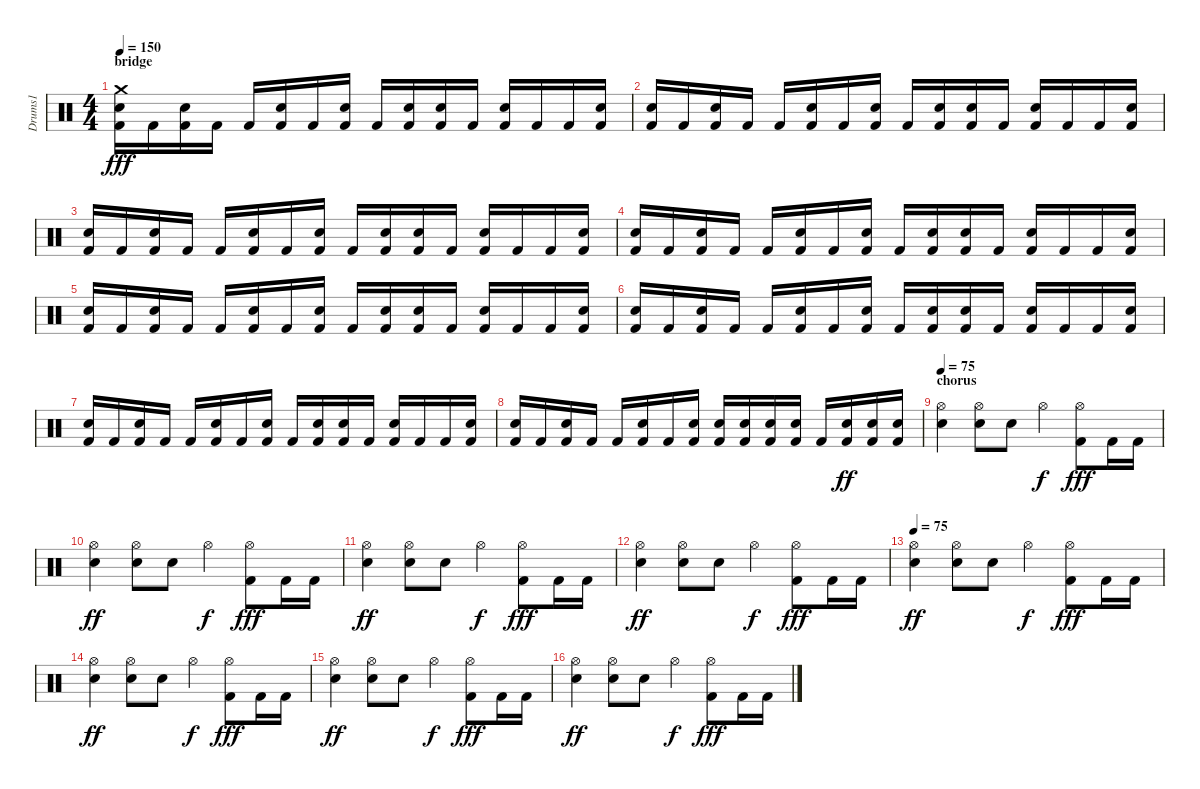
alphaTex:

\track ("Drums1" "Drums1") {instrument percussion}
\staff {score}
\articulation defaults
\ts (4 4)
\section ("" "bridge")
\tempo 150
\clef neutral
\ks c
("Kick (hit) 2" "Electric Snare (hit)" "Crash medium (hit)").16{dy fff} "Kick (hit) 2".16 ("Kick (hit) 2" "Electric Snare (hit)").16 "Kick (hit) 2".16 "Kick (hit) 2".16 ("Kick (hit) 2" "Electric Snare (hit)").16 "Kick (hit) 2".16 ("Kick (hit) 2" "Electric Snare (hit)").16 "Kick (hit) 2".16 ("Kick (hit) 2" "Electric Snare (hit)").16 ("Kick (hit) 2" "Electric Snare (hit)").16 "Kick (hit) 2".16 ("Kick (hit) 2" "Electric Snare (hit)").16 "Kick (hit) 2".16 "Kick (hit) 2".16 ("Kick (hit) 2" "Electric Snare (hit)").16 |
("Kick (hit) 2" "Electric Snare (hit)").16 "Kick (hit) 2".16 ("Kick (hit) 2" "Electric Snare (hit)").16 "Kick (hit) 2".16 "Kick (hit) 2".16 ("Kick (hit) 2" "Electric Snare (hit)").16 "Kick (hit) 2".16 ("Kick (hit) 2" "Electric Snare (hit)").16 "Kick (hit) 2".16 ("Kick (hit) 2" "Electric Snare (hit)").16 ("Kick (hit) 2" "Electric Snare (hit)").16 "Kick (hit) 2".16 ("Kick (hit) 2" "Electric Snare (hit)").16 "Kick (hit) 2".16 "Kick (hit) 2".16 ("Kick (hit) 2" "Electric Snare (hit)").16 |
("Kick (hit) 2" "Electric Snare (hit)").16 "Kick (hit) 2".16 ("Kick (hit) 2" "Electric Snare (hit)").16 "Kick (hit) 2".16 "Kick (hit) 2".16 ("Kick (hit) 2" "Electric Snare (hit)").16 "Kick (hit) 2".16 ("Kick (hit) 2" "Electric Snare (hit)").16 "Kick (hit) 2".16 ("Kick (hit) 2" "Electric Snare (hit)").16 ("Kick (hit) 2" "Electric Snare (hit)").16 "Kick (hit) 2".16 ("Kick (hit) 2" "Electric Snare (hit)").16 "Kick (hit) 2".16 "Kick (hit) 2".16 ("Kick (hit) 2" "Electric Snare (hit)").16 |
("Kick (hit) 2" "Electric Snare (hit)").16 "Kick (hit) 2".16 ("Kick (hit) 2" "Electric Snare (hit)").16 "Kick (hit) 2".16 "Kick (hit) 2".16 ("Kick (hit) 2" "Electric Snare (hit)").16 "Kick (hit) 2".16 ("Kick (hit) 2" "Electric Snare (hit)").16 "Kick (hit) 2".16 ("Kick (hit) 2" "Electric Snare (hit)").16 ("Kick (hit) 2" "Electric Snare (hit)").16 "Kick (hit) 2".16 ("Kick (hit) 2" "Electric Snare (hit)").16 "Kick (hit) 2".16 "Kick (hit) 2".16 ("Kick (hit) 2" "Electric Snare (hit)").16 |
("Kick (hit) 2" "Electric Snare (hit)").16 "Kick (hit) 2".16 ("Kick (hit) 2" "Electric Snare (hit)").16 "Kick (hit) 2".16 "Kick (hit) 2".16 ("Kick (hit) 2" "Electric Snare (hit)").16 "Kick (hit) 2".16 ("Kick (hit) 2" "Electric Snare (hit)").16 "Kick (hit) 2".16 ("Kick (hit) 2" "Electric Snare (hit)").16 ("Kick (hit) 2" "Electric Snare (hit)").16 "Kick (hit) 2".16 ("Kick (hit) 2" "Electric Snare (hit)").16 "Kick (hit) 2".16 "Kick (hit) 2".16 ("Kick (hit) 2" "Electric Snare (hit)").16 |
("Kick (hit) 2" "Electric Snare (hit)").16 "Kick (hit) 2".16 ("Kick (hit) 2" "Electric Snare (hit)").16 "Kick (hit) 2".16 "Kick (hit) 2".16 ("Kick (hit) 2" "Electric Snare (hit)").16 "Kick (hit) 2".16 ("Kick (hit) 2" "Electric Snare (hit)").16 "Kick (hit) 2".16 ("Kick (hit) 2" "Electric Snare (hit)").16 ("Kick (hit) 2" "Electric Snare (hit)").16 "Kick (hit) 2".16 ("Kick (hit) 2" "Electric Snare (hit)").16 "Kick (hit) 2".16 "Kick (hit) 2".16 ("Kick (hit) 2" "Electric Snare (hit)").16 |
("Kick (hit) 2" "Electric Snare (hit)").16 "Kick (hit) 2".16 ("Kick (hit) 2" "Electric Snare (hit)").16 "Kick (hit) 2".16 "Kick (hit) 2".16 ("Kick (hit) 2" "Electric Snare (hit)").16 "Kick (hit) 2".16 ("Kick (hit) 2" "Electric Snare (hit)").16 "Kick (hit) 2".16 ("Kick (hit) 2" "Electric Snare (hit)").16 ("Kick (hit) 2" "Electric Snare (hit)").16 "Kick (hit) 2".16 ("Kick (hit) 2" "Electric Snare (hit)").16 "Kick (hit) 2".16 "Kick (hit) 2".16 ("Kick (hit) 2" "Electric Snare (hit)").16 |
("Kick (hit) 2" "Electric Snare (hit)").16 "Kick (hit) 2".16 ("Kick (hit) 2" "Electric Snare (hit)").16 "Kick (hit) 2".16 "Kick (hit) 2".16 ("Kick (hit) 2" "Electric Snare (hit)").16 "Kick (hit) 2".16 ("Kick (hit) 2" "Electric Snare (hit)").16 ("Kick (hit) 2" "Electric Snare (hit)").16 ("Kick (hit) 2" "Electric Snare (hit)").16 ("Kick (hit) 2" "Electric Snare (hit)").16 ("Kick (hit) 2" "Electric Snare (hit)").16 "Kick (hit) 2".16 ("Kick (hit) 2" "Electric Snare (hit)").16{dy ff} ("Kick (hit) 2" "Electric Snare (hit)").16 ("Kick (hit) 2" "Electric Snare (hit)").16 |
\section ("" "chorus")
\tempo 75
("Hi-Hat (open)" "Snare (hit) 2").4 ("Hi-Hat (open)" "Snare (hit) 2").8 "Snare (hit) 2".8 "Hi-Hat (open)".4{dy f} ("Hi-Hat (open)" "Kick (hit) 2").8{dy fff} "Kick (hit) 2".16 "Kick (hit) 2".16 |
("Hi-Hat (open)" "Snare (hit) 2").4{dy ff} ("Hi-Hat (open)" "Snare (hit) 2").8 "Snare (hit) 2".8 "Hi-Hat (open)".4{dy f} ("Hi-Hat (open)" "Kick (hit) 2").8{dy fff} "Kick (hit) 2".16 "Kick (hit) 2".16 |
("Hi-Hat (open)" "Snare (hit) 2").4{dy ff} ("Hi-Hat (open)" "Snare (hit) 2").8 "Snare (hit) 2".8 "Hi-Hat (open)".4{dy f} ("Hi-Hat (open)" "Kick (hit) 2").8{dy fff} "Kick (hit) 2".16 "Kick (hit) 2".16 |
("Hi-Hat (open)" "Snare (hit) 2").4{dy ff} ("Hi-Hat (open)" "Snare (hit) 2").8 "Snare (hit) 2".8 "Hi-Hat (open)".4{dy f} ("Hi-Hat (open)" "Kick (hit) 2").8{dy fff} "Kick (hit) 2".16 "Kick (hit) 2".16 |
\tempo 75
("Hi-Hat (open)" "Snare (hit) 2").4{dy ff} ("Hi-Hat (open)" "Snare (hit) 2").8 "Snare (hit) 2".8 "Hi-Hat (open)".4{dy f} ("Hi-Hat (open)" "Kick (hit) 2").8{dy fff} "Kick (hit) 2".16 "Kick (hit) 2".16 |
("Hi-Hat (open)" "Snare (hit) 2").4{dy ff} ("Hi-Hat (open)" "Snare (hit) 2").8 "Snare (hit) 2".8 "Hi-Hat (open)".4{dy f} ("Hi-Hat (open)" "Kick (hit) 2").8{dy fff} "Kick (hit) 2".16 "Kick (hit) 2".16 |
("Hi-Hat (open)" "Snare (hit) 2").4{dy ff} ("Hi-Hat (open)" "Snare (hit) 2").8 "Snare (hit) 2".8 "Hi-Hat (open)".4{dy f} ("Hi-Hat (open)" "Kick (hit) 2").8{dy fff} "Kick (hit) 2".16 "Kick (hit) 2".16 |
("Hi-Hat (open)" "Snare (hit) 2").4{dy ff} ("Hi-Hat (open)" "Snare (hit) 2").8 "Snare (hit) 2".8 "Hi-Hat (open)".4{dy f} ("Hi-Hat (open)" "Kick (hit) 2").8{dy fff} "Kick (hit) 2".16 "Kick (hit) 2".16
